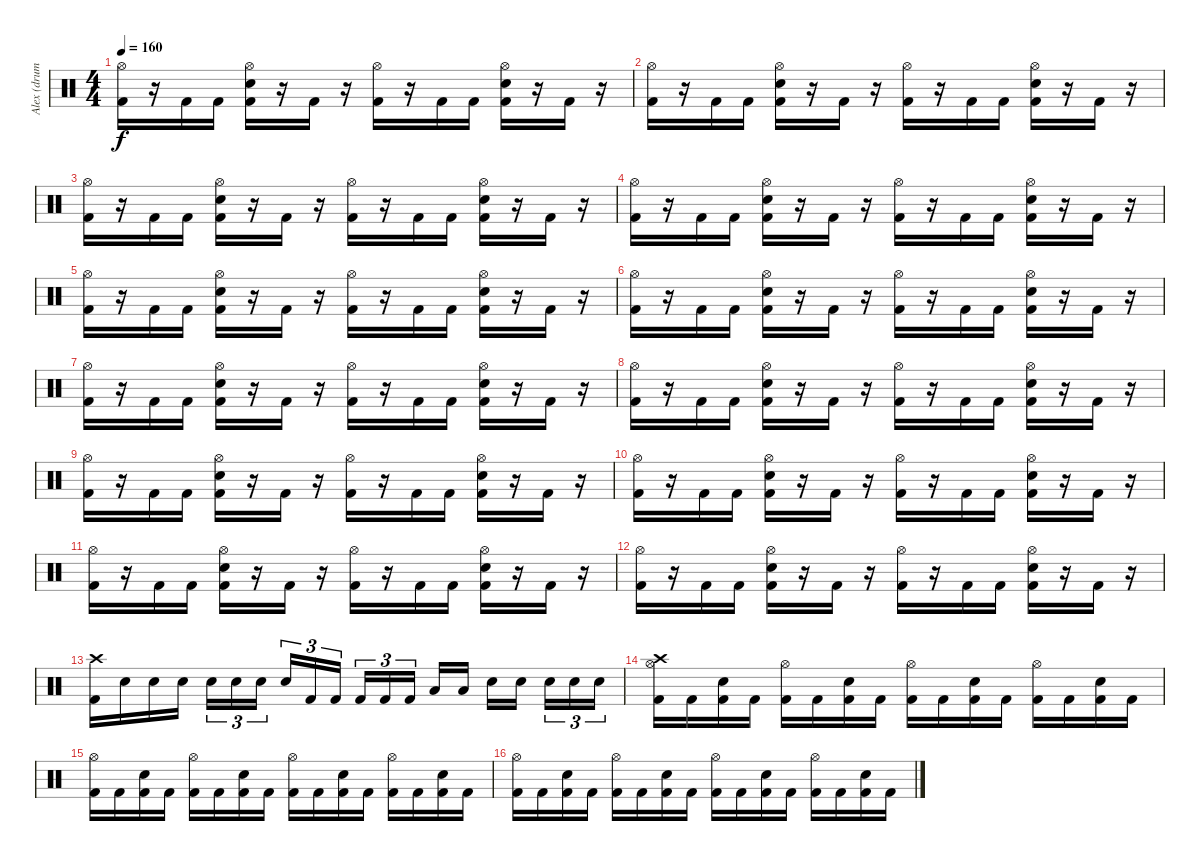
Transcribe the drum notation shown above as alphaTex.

\track ("Alex (drums)" "Alex (drum") {instrument percussion}
\staff {score}
\articulation defaults
\ts (4 4)
\tempo 160
\clef neutral
\ks c
("Hi-Hat (open)" "Kick (hit) 2").16{dy f} r.16 "Kick (hit) 2".16 "Kick (hit) 2".16 ("Hi-Hat (open)" "Snare (hit) 2" "Kick (hit) 2").16 r.16 "Kick (hit) 2".16 r.16 ("Hi-Hat (open)" "Kick (hit) 2").16 r.16 "Kick (hit) 2".16 "Kick (hit) 2".16 ("Hi-Hat (open)" "Snare (hit) 2" "Kick (hit) 2").16 r.16 "Kick (hit) 2".16 r.16 |
("Hi-Hat (open)" "Kick (hit) 2").16 r.16 "Kick (hit) 2".16 "Kick (hit) 2".16 ("Hi-Hat (open)" "Snare (hit) 2" "Kick (hit) 2").16 r.16 "Kick (hit) 2".16 r.16 ("Hi-Hat (open)" "Kick (hit) 2").16 r.16 "Kick (hit) 2".16 "Kick (hit) 2".16 ("Hi-Hat (open)" "Snare (hit) 2" "Kick (hit) 2").16 r.16 "Kick (hit) 2".16 r.16 |
("Hi-Hat (open)" "Kick (hit) 2").16 r.16 "Kick (hit) 2".16 "Kick (hit) 2".16 ("Hi-Hat (open)" "Snare (hit) 2" "Kick (hit) 2").16 r.16 "Kick (hit) 2".16 r.16 ("Hi-Hat (open)" "Kick (hit) 2").16 r.16 "Kick (hit) 2".16 "Kick (hit) 2".16 ("Hi-Hat (open)" "Snare (hit) 2" "Kick (hit) 2").16 r.16 "Kick (hit) 2".16 r.16 |
("Hi-Hat (open)" "Kick (hit) 2").16 r.16 "Kick (hit) 2".16 "Kick (hit) 2".16 ("Hi-Hat (open)" "Snare (hit) 2" "Kick (hit) 2").16 r.16 "Kick (hit) 2".16 r.16 ("Hi-Hat (open)" "Kick (hit) 2").16 r.16 "Kick (hit) 2".16 "Kick (hit) 2".16 ("Hi-Hat (open)" "Snare (hit) 2" "Kick (hit) 2").16 r.16 "Kick (hit) 2".16 r.16 |
("Hi-Hat (open)" "Kick (hit) 2").16 r.16 "Kick (hit) 2".16 "Kick (hit) 2".16 ("Hi-Hat (open)" "Snare (hit) 2" "Kick (hit) 2").16 r.16 "Kick (hit) 2".16 r.16 ("Hi-Hat (open)" "Kick (hit) 2").16 r.16 "Kick (hit) 2".16 "Kick (hit) 2".16 ("Hi-Hat (open)" "Snare (hit) 2" "Kick (hit) 2").16 r.16 "Kick (hit) 2".16 r.16 |
("Hi-Hat (open)" "Kick (hit) 2").16 r.16 "Kick (hit) 2".16 "Kick (hit) 2".16 ("Hi-Hat (open)" "Snare (hit) 2" "Kick (hit) 2").16 r.16 "Kick (hit) 2".16 r.16 ("Hi-Hat (open)" "Kick (hit) 2").16 r.16 "Kick (hit) 2".16 "Kick (hit) 2".16 ("Hi-Hat (open)" "Snare (hit) 2" "Kick (hit) 2").16 r.16 "Kick (hit) 2".16 r.16 |
("Hi-Hat (open)" "Kick (hit) 2").16 r.16 "Kick (hit) 2".16 "Kick (hit) 2".16 ("Hi-Hat (open)" "Snare (hit) 2" "Kick (hit) 2").16 r.16 "Kick (hit) 2".16 r.16 ("Hi-Hat (open)" "Kick (hit) 2").16 r.16 "Kick (hit) 2".16 "Kick (hit) 2".16 ("Hi-Hat (open)" "Snare (hit) 2" "Kick (hit) 2").16 r.16 "Kick (hit) 2".16 r.16 |
("Hi-Hat (open)" "Kick (hit) 2").16 r.16 "Kick (hit) 2".16 "Kick (hit) 2".16 ("Hi-Hat (open)" "Snare (hit) 2" "Kick (hit) 2").16 r.16 "Kick (hit) 2".16 r.16 ("Hi-Hat (open)" "Kick (hit) 2").16 r.16 "Kick (hit) 2".16 "Kick (hit) 2".16 ("Hi-Hat (open)" "Snare (hit) 2" "Kick (hit) 2").16 r.16 "Kick (hit) 2".16 r.16 |
("Hi-Hat (open)" "Kick (hit) 2").16 r.16 "Kick (hit) 2".16 "Kick (hit) 2".16 ("Hi-Hat (open)" "Snare (hit) 2" "Kick (hit) 2").16 r.16 "Kick (hit) 2".16 r.16 ("Hi-Hat (open)" "Kick (hit) 2").16 r.16 "Kick (hit) 2".16 "Kick (hit) 2".16 ("Hi-Hat (open)" "Snare (hit) 2" "Kick (hit) 2").16 r.16 "Kick (hit) 2".16 r.16 |
("Hi-Hat (open)" "Kick (hit) 2").16 r.16 "Kick (hit) 2".16 "Kick (hit) 2".16 ("Hi-Hat (open)" "Snare (hit) 2" "Kick (hit) 2").16 r.16 "Kick (hit) 2".16 r.16 ("Hi-Hat (open)" "Kick (hit) 2").16 r.16 "Kick (hit) 2".16 "Kick (hit) 2".16 ("Hi-Hat (open)" "Snare (hit) 2" "Kick (hit) 2").16 r.16 "Kick (hit) 2".16 r.16 |
("Hi-Hat (open)" "Kick (hit) 2").16 r.16 "Kick (hit) 2".16 "Kick (hit) 2".16 ("Hi-Hat (open)" "Snare (hit) 2" "Kick (hit) 2").16 r.16 "Kick (hit) 2".16 r.16 ("Hi-Hat (open)" "Kick (hit) 2").16 r.16 "Kick (hit) 2".16 "Kick (hit) 2".16 ("Hi-Hat (open)" "Snare (hit) 2" "Kick (hit) 2").16 r.16 "Kick (hit) 2".16 r.16 |
("Hi-Hat (open)" "Kick (hit) 2").16 r.16 "Kick (hit) 2".16 "Kick (hit) 2".16 ("Hi-Hat (open)" "Snare (hit) 2" "Kick (hit) 2").16 r.16 "Kick (hit) 2".16 r.16 ("Hi-Hat (open)" "Kick (hit) 2").16 r.16 "Kick (hit) 2".16 "Kick (hit) 2".16 ("Hi-Hat (open)" "Snare (hit) 2" "Kick (hit) 2").16 r.16 "Kick (hit) 2".16 r.16 |
("Kick (hit) 2" "Crash high (hit)").16 "Snare (hit) 2".16 "Snare (hit) 2".16 "Snare (hit) 2".16 "Snare (hit) 2".16{tu (3 2)} "Snare (hit) 2".16{tu (3 2)} "Snare (hit) 2".16{tu (3 2)} "Snare (hit) 2".16{tu (3 2)} "Kick (hit) 2".16{tu (3 2)} "Kick (hit) 2".16{tu (3 2)} "Kick (hit) 2".16{tu (3 2)} "Kick (hit) 2".16{tu (3 2)} "Kick (hit) 2".16{tu (3 2)} "Low Tom (hit)".16 "Low Tom (hit)".16 "Snare (hit) 2".16 "Snare (hit) 2".16 "Snare (hit) 2".16{tu (3 2)} "Snare (hit) 2".16{tu (3 2)} "Snare (hit) 2".16{tu (3 2)} |
("Hi-Hat (open)" "Kick (hit) 2" "Crash high (hit)").16 "Kick (hit) 2".16 ("Snare (hit) 2" "Kick (hit) 2").16 "Kick (hit) 2".16 ("Hi-Hat (open)" "Kick (hit) 2").16 "Kick (hit) 2".16 ("Snare (hit) 2" "Kick (hit) 2").16 "Kick (hit) 2".16 ("Hi-Hat (open)" "Kick (hit) 2").16 "Kick (hit) 2".16 ("Snare (hit) 2" "Kick (hit) 2").16 "Kick (hit) 2".16 ("Hi-Hat (open)" "Kick (hit) 2").16 "Kick (hit) 2".16 ("Snare (hit) 2" "Kick (hit) 2").16 "Kick (hit) 2".16 |
("Hi-Hat (open)" "Kick (hit) 2").16 "Kick (hit) 2".16 ("Snare (hit) 2" "Kick (hit) 2").16 "Kick (hit) 2".16 ("Hi-Hat (open)" "Kick (hit) 2").16 "Kick (hit) 2".16 ("Snare (hit) 2" "Kick (hit) 2").16 "Kick (hit) 2".16 ("Hi-Hat (open)" "Kick (hit) 2").16 "Kick (hit) 2".16 ("Snare (hit) 2" "Kick (hit) 2").16 "Kick (hit) 2".16 ("Hi-Hat (open)" "Kick (hit) 2").16 "Kick (hit) 2".16 ("Snare (hit) 2" "Kick (hit) 2").16 "Kick (hit) 2".16 |
("Hi-Hat (open)" "Kick (hit) 2").16 "Kick (hit) 2".16 ("Snare (hit) 2" "Kick (hit) 2").16 "Kick (hit) 2".16 ("Hi-Hat (open)" "Kick (hit) 2").16 "Kick (hit) 2".16 ("Snare (hit) 2" "Kick (hit) 2").16 "Kick (hit) 2".16 ("Hi-Hat (open)" "Kick (hit) 2").16 "Kick (hit) 2".16 ("Snare (hit) 2" "Kick (hit) 2").16 "Kick (hit) 2".16 ("Hi-Hat (open)" "Kick (hit) 2").16 "Kick (hit) 2".16 ("Snare (hit) 2" "Kick (hit) 2").16 "Kick (hit) 2".16
